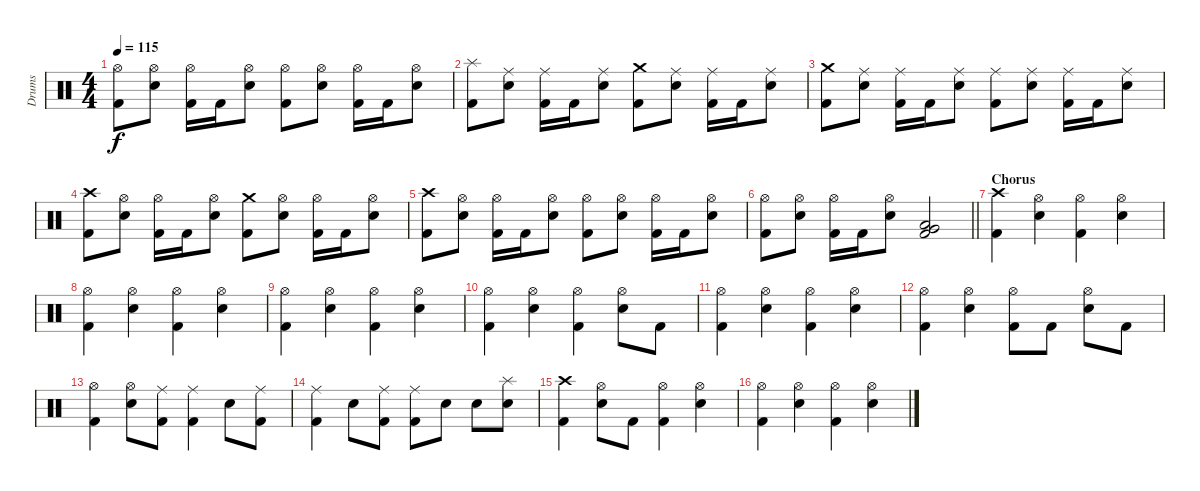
\track ("Drums" "Drums") {instrument percussion}
\staff {score}
\articulation defaults
\ts (4 4)
\tempo 115
\clef neutral
\ks c
("Hi-Hat (open)" "Kick (hit) 2").8{dy f} ("Hi-Hat (open)" "Electric Snare (hit)").8 ("Hi-Hat (open)" "Kick (hit) 2").16 "Kick (hit) 2".16 ("Hi-Hat (open)" "Electric Snare (hit)").8 ("Hi-Hat (open)" "Kick (hit) 2").8 ("Hi-Hat (open)" "Electric Snare (hit)").8 ("Hi-Hat (open)" "Kick (hit) 2").16 "Kick (hit) 2".16 ("Hi-Hat (open)" "Electric Snare (hit)").8 |
("Splash (hit)" "Kick (hit) 2").8 ("Ride (middle)" "Electric Snare (hit)").8 ("Ride (middle)" "Kick (hit) 2").16 "Kick (hit) 2".16 ("Ride (middle)" "Electric Snare (hit)").8 ("Crash medium (hit)" "Kick (hit) 2").8 ("Ride (middle)" "Electric Snare (hit)").8 ("Ride (middle)" "Kick (hit) 2").16 "Kick (hit) 2".16 ("Ride (middle)" "Electric Snare (hit)").8 |
("Crash medium (hit)" "Kick (hit) 2").8 ("Ride (middle)" "Electric Snare (hit)").8 ("Ride (middle)" "Kick (hit) 2").16 "Kick (hit) 2".16 ("Ride (middle)" "Electric Snare (hit)").8 ("Ride (middle)" "Kick (hit) 2").8 ("Ride (middle)" "Electric Snare (hit)").8 ("Ride (middle)" "Kick (hit) 2").16 "Kick (hit) 2".16 ("Ride (middle)" "Electric Snare (hit)").8 |
("Crash high (hit)" "Kick (hit) 2").8 ("Hi-Hat (open)" "Electric Snare (hit)").8 ("Hi-Hat (open)" "Kick (hit) 2").16 "Kick (hit) 2".16 ("Hi-Hat (open)" "Electric Snare (hit)").8 ("Crash medium (hit)" "Kick (hit) 2").8 ("Hi-Hat (open)" "Electric Snare (hit)").8 ("Hi-Hat (open)" "Kick (hit) 2").16 "Kick (hit) 2".16 ("Hi-Hat (open)" "Electric Snare (hit)").8 |
("Crash high (hit)" "Kick (hit) 2").8 ("Hi-Hat (open)" "Electric Snare (hit)").8 ("Hi-Hat (open)" "Kick (hit) 2").16 "Kick (hit) 2".16 ("Hi-Hat (open)" "Electric Snare (hit)").8 ("Hi-Hat (open)" "Kick (hit) 2").8 ("Hi-Hat (open)" "Electric Snare (hit)").8 ("Hi-Hat (open)" "Kick (hit) 2").16 "Kick (hit) 2".16 ("Hi-Hat (open)" "Electric Snare (hit)").8 |
\barLineRight lightlight
("Hi-Hat (open)" "Kick (hit) 2").8 ("Hi-Hat (open)" "Electric Snare (hit)").8 ("Hi-Hat (open)" "Kick (hit) 2").16 "Kick (hit) 2".16 ("Hi-Hat (open)" "Electric Snare (hit)").8 ("Very Low Tom (hit)" "Low Floor Tom (hit)" "Kick (hit) 2").2 |
\section ("" "Chorus")
("Crash high (hit)" "Kick (hit) 2").4 ("Hi-Hat (open)" "Electric Snare (hit)").4 ("Hi-Hat (open)" "Kick (hit) 2").4 ("Hi-Hat (open)" "Electric Snare (hit)").4 |
("Hi-Hat (open)" "Kick (hit) 2").4 ("Hi-Hat (open)" "Electric Snare (hit)").4 ("Hi-Hat (open)" "Kick (hit) 2").4 ("Hi-Hat (open)" "Electric Snare (hit)").4 |
("Hi-Hat (open)" "Kick (hit) 2").4 ("Hi-Hat (open)" "Electric Snare (hit)").4 ("Hi-Hat (open)" "Kick (hit) 2").4 ("Hi-Hat (open)" "Electric Snare (hit)").4 |
("Hi-Hat (open)" "Kick (hit) 2").4 ("Hi-Hat (open)" "Electric Snare (hit)").4 ("Hi-Hat (open)" "Kick (hit) 2").4 ("Hi-Hat (open)" "Electric Snare (hit)").8 "Kick (hit) 2".8 |
("Hi-Hat (open)" "Kick (hit) 2").4 ("Hi-Hat (open)" "Electric Snare (hit)").4 ("Hi-Hat (open)" "Kick (hit) 2").4 ("Hi-Hat (open)" "Electric Snare (hit)").4 |
("Hi-Hat (open)" "Kick (hit) 2").4 ("Hi-Hat (open)" "Electric Snare (hit)").4 ("Hi-Hat (open)" "Kick (hit) 2").8 "Kick (hit) 2".8 ("Hi-Hat (open)" "Electric Snare (hit)").8 "Kick (hit) 2".8 |
("Hi-Hat (open)" "Kick (hit) 2").4 ("Hi-Hat (open)" "Electric Snare (hit)").8 ("Ride (middle)" "Kick (hit) 2").8 ("Ride (middle)" "Kick (hit) 2").4 "Electric Snare (hit)".8 ("Ride (middle)" "Kick (hit) 2").8 |
("Ride (middle)" "Kick (hit) 2").4 "Electric Snare (hit)".8 ("Ride (middle)" "Kick (hit) 2").8 ("Ride (middle)" "Kick (hit) 2").8 "Electric Snare (hit)".8 "Electric Snare (hit)".8 ("Splash (hit)" "Electric Snare (hit)").8 |
("Crash high (hit)" "Kick (hit) 2").4 ("Hi-Hat (open)" "Electric Snare (hit)").8 "Kick (hit) 2".8 ("Hi-Hat (open)" "Kick (hit) 2").4 ("Hi-Hat (open)" "Electric Snare (hit)").4 |
("Hi-Hat (open)" "Kick (hit) 2").4 ("Hi-Hat (open)" "Electric Snare (hit)").4 ("Hi-Hat (open)" "Kick (hit) 2").4 ("Hi-Hat (open)" "Electric Snare (hit)").4
